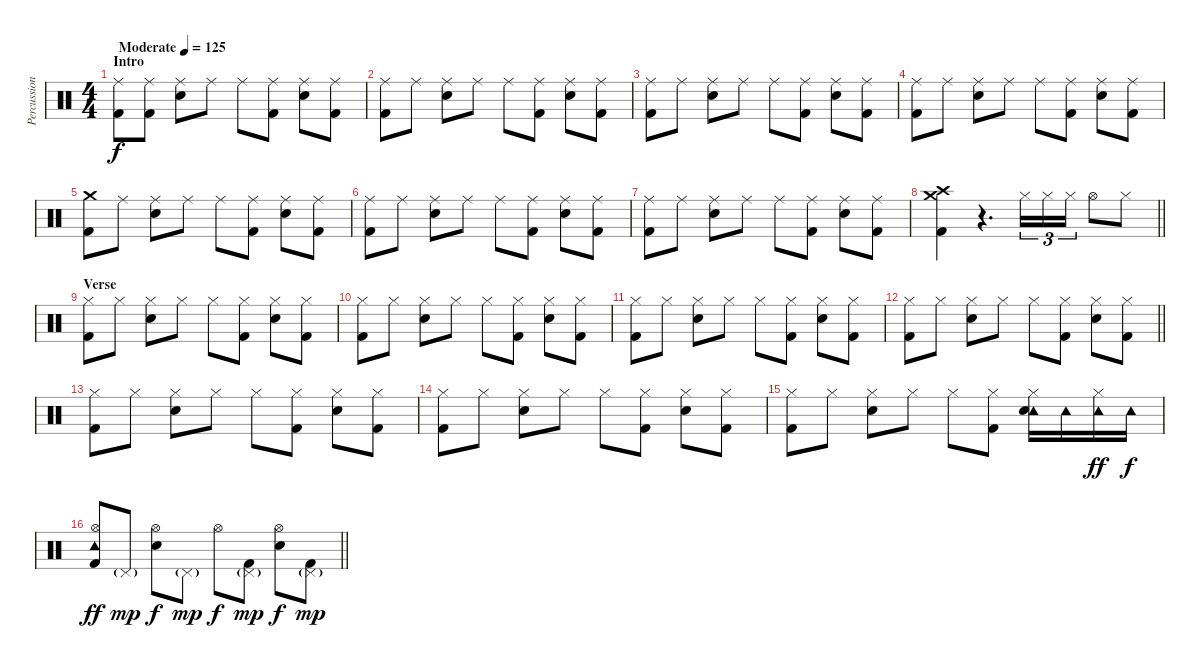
\track ("Percussion" "Percussion") {instrument percussion}
\staff {score}
\articulation defaults
\ts (4 4)
\section ("" "Intro")
\tempo (125 "Moderate")
\clef neutral
\ks c
("Ride (middle)" "Kick (hit) 2").8{dy f} ("Ride (middle)" "Kick (hit) 2").8 ("Ride (middle)" "Electric Snare (hit)").8 "Ride (middle)".8 "Ride (middle)".8 ("Ride (middle)" "Kick (hit) 2").8 ("Ride (middle)" "Electric Snare (hit)").8 ("Ride (middle)" "Kick (hit) 2").8 |
("Ride (middle)" "Kick (hit) 2").8 "Ride (middle)".8 ("Ride (middle)" "Electric Snare (hit)").8 "Ride (middle)".8 "Ride (middle)".8 ("Ride (middle)" "Kick (hit) 2").8 ("Ride (middle)" "Electric Snare (hit)").8 ("Ride (middle)" "Kick (hit) 2").8 |
("Ride (middle)" "Kick (hit) 2").8 "Ride (middle)".8 ("Ride (middle)" "Electric Snare (hit)").8 "Ride (middle)".8 "Ride (middle)".8 ("Ride (middle)" "Kick (hit) 2").8 ("Ride (middle)" "Electric Snare (hit)").8 ("Ride (middle)" "Kick (hit) 2").8 |
("Ride (middle)" "Kick (hit) 2").8 "Ride (middle)".8 ("Ride (middle)" "Electric Snare (hit)").8 "Ride (middle)".8 "Ride (middle)".8 ("Ride (middle)" "Kick (hit) 2").8 ("Ride (middle)" "Electric Snare (hit)").8 ("Ride (middle)" "Kick (hit) 2").8 |
("Crash medium (hit)" "Kick (hit) 2").8 "Ride (middle)".8 ("Ride (middle)" "Electric Snare (hit)").8 "Ride (middle)".8 "Ride (middle)".8 ("Ride (middle)" "Kick (hit) 2").8 ("Ride (middle)" "Electric Snare (hit)").8 ("Ride (middle)" "Kick (hit) 2").8 |
("Ride (middle)" "Kick (hit) 2").8 "Ride (middle)".8 ("Ride (middle)" "Electric Snare (hit)").8 "Ride (middle)".8 "Ride (middle)".8 ("Ride (middle)" "Kick (hit) 2").8 ("Ride (middle)" "Electric Snare (hit)").8 ("Ride (middle)" "Kick (hit) 2").8 |
("Ride (middle)" "Kick (hit) 2").8 "Ride (middle)".8 ("Ride (middle)" "Electric Snare (hit)").8 "Ride (middle)".8 "Ride (middle)".8 ("Ride (middle)" "Kick (hit) 2").8 ("Ride (middle)" "Electric Snare (hit)").8 ("Ride (middle)" "Kick (hit) 2").8 |
\barLineRight lightlight
("Crash high (hit)" "Crash medium (hit)" "Kick (hit) 2").4 r.4{d} "Hi-Hat (closed)".16{tu (3 2)} "Hi-Hat (closed)".16{tu (3 2)} "Hi-Hat (closed)".16{tu (3 2)} "Hi-Hat (open)".8 "Hi-Hat (closed)".8 |
\section ("" "Verse")
("Hi-Hat (closed)" "Kick (hit) 2").8 "Hi-Hat (closed)".8 ("Hi-Hat (closed)" "Electric Snare (hit)").8 "Hi-Hat (closed)".8 "Hi-Hat (closed)".8 ("Hi-Hat (closed)" "Kick (hit) 2").8 ("Hi-Hat (closed)" "Electric Snare (hit)").8 ("Hi-Hat (closed)" "Kick (hit) 2").8 |
("Hi-Hat (closed)" "Kick (hit) 2").8 "Hi-Hat (closed)".8 ("Hi-Hat (closed)" "Electric Snare (hit)").8 "Hi-Hat (closed)".8 "Hi-Hat (closed)".8 ("Hi-Hat (closed)" "Kick (hit) 2").8 ("Hi-Hat (closed)" "Electric Snare (hit)").8 ("Hi-Hat (closed)" "Kick (hit) 2").8 |
("Hi-Hat (closed)" "Kick (hit) 2").8 "Hi-Hat (closed)".8 ("Hi-Hat (closed)" "Electric Snare (hit)").8 "Hi-Hat (closed)".8 "Hi-Hat (closed)".8 ("Hi-Hat (closed)" "Kick (hit) 2").8 ("Hi-Hat (closed)" "Electric Snare (hit)").8 ("Hi-Hat (closed)" "Kick (hit) 2").8 |
\barLineRight lightlight
("Hi-Hat (closed)" "Kick (hit) 2").8 "Hi-Hat (closed)".8 ("Hi-Hat (closed)" "Electric Snare (hit)").8 "Hi-Hat (closed)".8 "Hi-Hat (closed)".8 ("Hi-Hat (closed)" "Kick (hit) 2").8 ("Hi-Hat (closed)" "Electric Snare (hit)").8 ("Hi-Hat (closed)" "Kick (hit) 2").8 |
("Hi-Hat (closed)" "Kick (hit) 2").8 "Hi-Hat (closed)".8 ("Hi-Hat (closed)" "Electric Snare (hit)").8 "Hi-Hat (closed)".8 "Hi-Hat (closed)".8 ("Hi-Hat (closed)" "Kick (hit) 2").8 ("Hi-Hat (closed)" "Electric Snare (hit)").8 ("Hi-Hat (closed)" "Kick (hit) 2").8 |
("Hi-Hat (closed)" "Kick (hit) 2").8 "Hi-Hat (closed)".8 ("Hi-Hat (closed)" "Electric Snare (hit)").8 "Hi-Hat (closed)".8 "Hi-Hat (closed)".8 ("Hi-Hat (closed)" "Kick (hit) 2").8 ("Hi-Hat (closed)" "Electric Snare (hit)").8 ("Hi-Hat (closed)" "Kick (hit) 2").8 |
("Hi-Hat (closed)" "Kick (hit) 2").8 "Hi-Hat (closed)".8 ("Hi-Hat (closed)" "Electric Snare (hit)").8 "Hi-Hat (closed)".8 "Hi-Hat (closed)".8 ("Hi-Hat (closed)" "Kick (hit) 2").8 ("Tambourine (hit)" "Hi-Hat (closed)" "Electric Snare (hit)").16 "Tambourine (hit)".16 ("Tambourine (hit)" "Hi-Hat (closed)").16{dy ff} "Tambourine (hit)".16{dy f} |
\barLineRight lightlight
("Tambourine (hit)" "Hi-Hat (open)" "Kick (hit) 2").8{dy ff} "Pedal Hi-Hat (hit)"{g}.8{dy mp} ("Hi-Hat (open)" "Electric Snare (hit)").8{dy f} "Pedal Hi-Hat (hit)"{g}.8{dy mp} "Hi-Hat (open)".8{dy f} ("Pedal Hi-Hat (hit)"{g} "Kick (hit) 2").8{dy mp} ("Hi-Hat (open)" "Electric Snare (hit)").8{dy f} ("Pedal Hi-Hat (hit)"{g} "Kick (hit) 2").8{dy mp}
